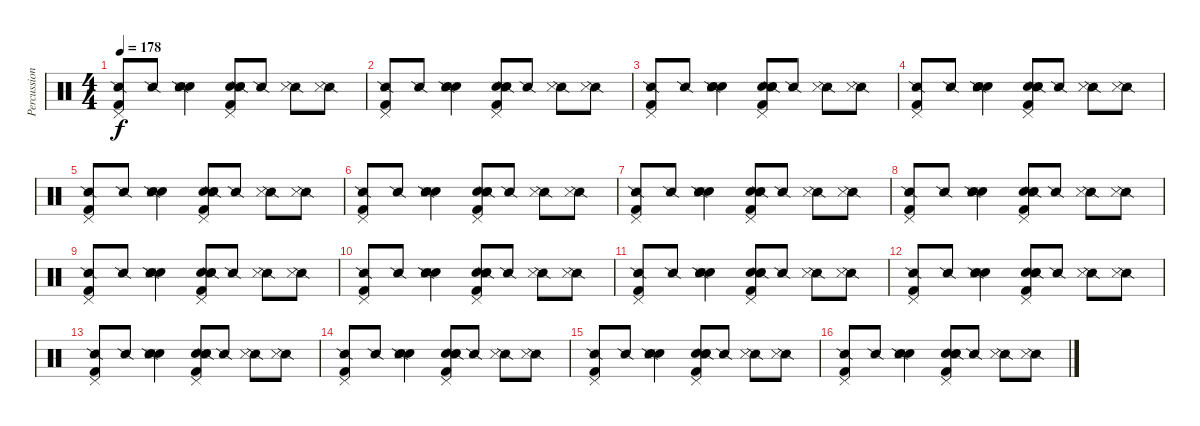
\track ("Percussion" "Percussion") {instrument percussion}
\staff {score}
\articulation defaults
\ts (4 4)
\tempo 178
\clef neutral
\ks c
("Pedal Hi-Hat (hit)" "Kick (hit) 2" "Snare (side stick) 2").8{dy f} "Snare (side stick) 2".8 ("Hand Clap (hit)" "Hand Clap (hit)" "Snare (side stick) 2" "Metronome (hit)").4 ("Pedal Hi-Hat (hit)" "Hand Clap (hit)" "Hand Clap (hit)" "Kick (hit) 2" "Snare (side stick) 2").8 "Snare (side stick) 2".8 ("Snare (side stick) 2" "Metronome (hit)").8 ("Snare (side stick) 2" "Metronome (hit)").8 |
("Pedal Hi-Hat (hit)" "Kick (hit) 2" "Snare (side stick) 2").8 "Snare (side stick) 2".8 ("Hand Clap (hit)" "Hand Clap (hit)" "Snare (side stick) 2" "Metronome (hit)").4 ("Pedal Hi-Hat (hit)" "Hand Clap (hit)" "Hand Clap (hit)" "Kick (hit) 2" "Snare (side stick) 2").8 "Snare (side stick) 2".8 ("Snare (side stick) 2" "Metronome (hit)").8 ("Snare (side stick) 2" "Metronome (hit)").8 |
("Pedal Hi-Hat (hit)" "Kick (hit) 2" "Snare (side stick) 2").8 "Snare (side stick) 2".8 ("Hand Clap (hit)" "Hand Clap (hit)" "Snare (side stick) 2" "Metronome (hit)").4 ("Pedal Hi-Hat (hit)" "Hand Clap (hit)" "Hand Clap (hit)" "Kick (hit) 2" "Snare (side stick) 2").8 "Snare (side stick) 2".8 ("Snare (side stick) 2" "Metronome (hit)").8 ("Snare (side stick) 2" "Metronome (hit)").8 |
("Pedal Hi-Hat (hit)" "Kick (hit) 2" "Snare (side stick) 2").8 "Snare (side stick) 2".8 ("Hand Clap (hit)" "Hand Clap (hit)" "Snare (side stick) 2" "Metronome (hit)").4 ("Pedal Hi-Hat (hit)" "Hand Clap (hit)" "Hand Clap (hit)" "Kick (hit) 2" "Snare (side stick) 2").8 "Snare (side stick) 2".8 ("Snare (side stick) 2" "Metronome (hit)").8 ("Snare (side stick) 2" "Metronome (hit)").8 |
("Pedal Hi-Hat (hit)" "Kick (hit) 2" "Snare (side stick) 2").8 "Snare (side stick) 2".8 ("Hand Clap (hit)" "Hand Clap (hit)" "Snare (side stick) 2" "Metronome (hit)").4 ("Pedal Hi-Hat (hit)" "Hand Clap (hit)" "Hand Clap (hit)" "Kick (hit) 2" "Snare (side stick) 2").8 "Snare (side stick) 2".8 ("Snare (side stick) 2" "Metronome (hit)").8 ("Snare (side stick) 2" "Metronome (hit)").8 |
("Pedal Hi-Hat (hit)" "Kick (hit) 2" "Snare (side stick) 2").8 "Snare (side stick) 2".8 ("Hand Clap (hit)" "Hand Clap (hit)" "Snare (side stick) 2" "Metronome (hit)").4 ("Pedal Hi-Hat (hit)" "Hand Clap (hit)" "Hand Clap (hit)" "Kick (hit) 2" "Snare (side stick) 2").8 "Snare (side stick) 2".8 ("Snare (side stick) 2" "Metronome (hit)").8 ("Snare (side stick) 2" "Metronome (hit)").8 |
("Pedal Hi-Hat (hit)" "Kick (hit) 2" "Snare (side stick) 2").8 "Snare (side stick) 2".8 ("Hand Clap (hit)" "Hand Clap (hit)" "Snare (side stick) 2" "Metronome (hit)").4 ("Pedal Hi-Hat (hit)" "Hand Clap (hit)" "Hand Clap (hit)" "Kick (hit) 2" "Snare (side stick) 2").8 "Snare (side stick) 2".8 ("Snare (side stick) 2" "Metronome (hit)").8 ("Snare (side stick) 2" "Metronome (hit)").8 |
("Pedal Hi-Hat (hit)" "Kick (hit) 2" "Snare (side stick) 2").8 "Snare (side stick) 2".8 ("Hand Clap (hit)" "Hand Clap (hit)" "Snare (side stick) 2" "Metronome (hit)").4 ("Pedal Hi-Hat (hit)" "Hand Clap (hit)" "Hand Clap (hit)" "Kick (hit) 2" "Snare (side stick) 2").8 "Snare (side stick) 2".8 ("Snare (side stick) 2" "Metronome (hit)").8 ("Snare (side stick) 2" "Metronome (hit)").8 |
("Pedal Hi-Hat (hit)" "Kick (hit) 2" "Snare (side stick) 2").8 "Snare (side stick) 2".8 ("Hand Clap (hit)" "Hand Clap (hit)" "Snare (side stick) 2" "Metronome (hit)").4 ("Pedal Hi-Hat (hit)" "Hand Clap (hit)" "Hand Clap (hit)" "Kick (hit) 2" "Snare (side stick) 2").8 "Snare (side stick) 2".8 ("Snare (side stick) 2" "Metronome (hit)").8 ("Snare (side stick) 2" "Metronome (hit)").8 |
("Pedal Hi-Hat (hit)" "Kick (hit) 2" "Snare (side stick) 2").8 "Snare (side stick) 2".8 ("Hand Clap (hit)" "Hand Clap (hit)" "Snare (side stick) 2" "Metronome (hit)").4 ("Pedal Hi-Hat (hit)" "Hand Clap (hit)" "Hand Clap (hit)" "Kick (hit) 2" "Snare (side stick) 2").8 "Snare (side stick) 2".8 ("Snare (side stick) 2" "Metronome (hit)").8 ("Snare (side stick) 2" "Metronome (hit)").8 |
("Pedal Hi-Hat (hit)" "Kick (hit) 2" "Snare (side stick) 2").8 "Snare (side stick) 2".8 ("Hand Clap (hit)" "Hand Clap (hit)" "Snare (side stick) 2" "Metronome (hit)").4 ("Pedal Hi-Hat (hit)" "Hand Clap (hit)" "Hand Clap (hit)" "Kick (hit) 2" "Snare (side stick) 2").8 "Snare (side stick) 2".8 ("Snare (side stick) 2" "Metronome (hit)").8 ("Snare (side stick) 2" "Metronome (hit)").8 |
("Pedal Hi-Hat (hit)" "Kick (hit) 2" "Snare (side stick) 2").8 "Snare (side stick) 2".8 ("Hand Clap (hit)" "Hand Clap (hit)" "Snare (side stick) 2" "Metronome (hit)").4 ("Pedal Hi-Hat (hit)" "Hand Clap (hit)" "Hand Clap (hit)" "Kick (hit) 2" "Snare (side stick) 2").8 "Snare (side stick) 2".8 ("Snare (side stick) 2" "Metronome (hit)").8 ("Snare (side stick) 2" "Metronome (hit)").8 |
("Pedal Hi-Hat (hit)" "Kick (hit) 2" "Snare (side stick) 2").8 "Snare (side stick) 2".8 ("Hand Clap (hit)" "Hand Clap (hit)" "Snare (side stick) 2" "Metronome (hit)").4 ("Pedal Hi-Hat (hit)" "Hand Clap (hit)" "Hand Clap (hit)" "Kick (hit) 2" "Snare (side stick) 2").8 "Snare (side stick) 2".8 ("Snare (side stick) 2" "Metronome (hit)").8 ("Snare (side stick) 2" "Metronome (hit)").8 |
("Pedal Hi-Hat (hit)" "Kick (hit) 2" "Snare (side stick) 2").8 "Snare (side stick) 2".8 ("Hand Clap (hit)" "Hand Clap (hit)" "Snare (side stick) 2" "Metronome (hit)").4 ("Pedal Hi-Hat (hit)" "Hand Clap (hit)" "Hand Clap (hit)" "Kick (hit) 2" "Snare (side stick) 2").8 "Snare (side stick) 2".8 ("Snare (side stick) 2" "Metronome (hit)").8 ("Snare (side stick) 2" "Metronome (hit)").8 |
("Pedal Hi-Hat (hit)" "Kick (hit) 2" "Snare (side stick) 2").8 "Snare (side stick) 2".8 ("Hand Clap (hit)" "Hand Clap (hit)" "Snare (side stick) 2" "Metronome (hit)").4 ("Pedal Hi-Hat (hit)" "Hand Clap (hit)" "Hand Clap (hit)" "Kick (hit) 2" "Snare (side stick) 2").8 "Snare (side stick) 2".8 ("Snare (side stick) 2" "Metronome (hit)").8 ("Snare (side stick) 2" "Metronome (hit)").8 |
("Pedal Hi-Hat (hit)" "Kick (hit) 2" "Snare (side stick) 2").8 "Snare (side stick) 2".8 ("Hand Clap (hit)" "Hand Clap (hit)" "Snare (side stick) 2" "Metronome (hit)").4 ("Pedal Hi-Hat (hit)" "Hand Clap (hit)" "Hand Clap (hit)" "Kick (hit) 2" "Snare (side stick) 2").8 "Snare (side stick) 2".8 ("Snare (side stick) 2" "Metronome (hit)").8 ("Snare (side stick) 2" "Metronome (hit)").8
